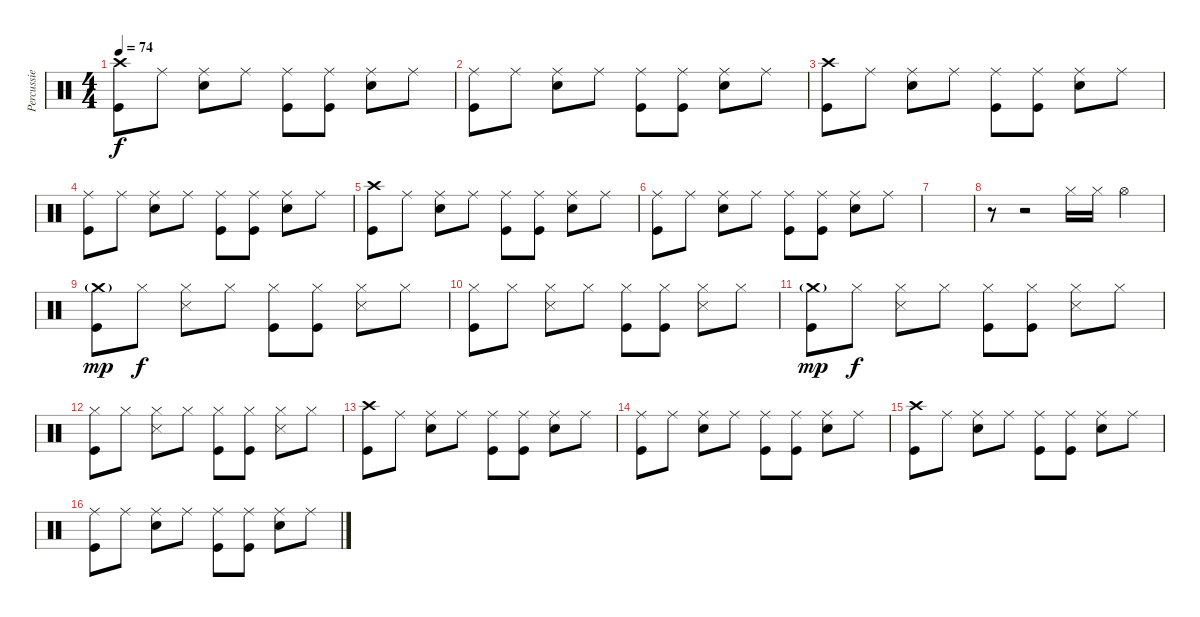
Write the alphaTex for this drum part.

\track ("Percussie" "Percussie") {instrument percussion}
\staff {score}
\articulation defaults
\ts (4 4)
\tempo 74
\clef neutral
\ks c
("Crash high (hit)" "Kick (hit)").8{dy f} "Ride (middle)".8 ("Ride (middle)" "Snare (hit) 2").8 "Ride (middle)".8 ("Ride (middle)" "Kick (hit)").8 ("Ride (middle)" "Kick (hit)").8 ("Ride (middle)" "Snare (hit) 2").8 "Ride (middle)".8 |
("Ride (middle)" "Kick (hit)").8 "Ride (middle)".8 ("Ride (middle)" "Snare (hit) 2").8 "Ride (middle)".8 ("Ride (middle)" "Kick (hit)").8 ("Ride (middle)" "Kick (hit)").8 ("Ride (middle)" "Snare (hit) 2").8 "Ride (middle)".8 |
("Crash high (hit)" "Kick (hit)").8 "Ride (middle)".8 ("Ride (middle)" "Snare (hit) 2").8 "Ride (middle)".8 ("Ride (middle)" "Kick (hit)").8 ("Ride (middle)" "Kick (hit)").8 ("Ride (middle)" "Snare (hit) 2").8 "Ride (middle)".8 |
("Ride (middle)" "Kick (hit)").8 "Ride (middle)".8 ("Ride (middle)" "Snare (hit) 2").8 "Ride (middle)".8 ("Ride (middle)" "Kick (hit)").8 ("Ride (middle)" "Kick (hit)").8 ("Ride (middle)" "Snare (hit) 2").8 "Ride (middle)".8 |
("Crash high (hit)" "Kick (hit)").8 "Ride (middle)".8 ("Ride (middle)" "Snare (hit) 2").8 "Ride (middle)".8 ("Ride (middle)" "Kick (hit)").8 ("Ride (middle)" "Kick (hit)").8 ("Ride (middle)" "Snare (hit) 2").8 "Ride (middle)".8 |
("Ride (middle)" "Kick (hit)").8 "Ride (middle)".8 ("Ride (middle)" "Snare (hit) 2").8 "Ride (middle)".8 ("Ride (middle)" "Kick (hit)").8 ("Ride (middle)" "Kick (hit)").8 ("Ride (middle)" "Snare (hit) 2").8 "Ride (middle)".8 |
|
r.8 r.2 "Hi-Hat (closed)".16 "Hi-Hat (closed)".16 "Hi-Hat (open)".4 |
("Crash medium (hit)"{g} "Kick (hit)").8{dy mp} "Hi-Hat (closed)".8{dy f} ("Hi-Hat (closed)" "Snare (side stick) 3").8 "Hi-Hat (closed)".8 ("Hi-Hat (closed)" "Kick (hit)").8 ("Hi-Hat (closed)" "Kick (hit)").8 ("Hi-Hat (closed)" "Snare (side stick) 3").8 "Hi-Hat (closed)".8 |
("Hi-Hat (closed)" "Kick (hit)").8 "Hi-Hat (closed)".8 ("Hi-Hat (closed)" "Snare (side stick) 3").8 "Hi-Hat (closed)".8 ("Hi-Hat (closed)" "Kick (hit)").8 ("Hi-Hat (closed)" "Kick (hit)").8 ("Hi-Hat (closed)" "Snare (side stick) 3").8 "Hi-Hat (closed)".8 |
("Crash medium (hit)"{g} "Kick (hit)").8{dy mp} "Hi-Hat (closed)".8{dy f} ("Hi-Hat (closed)" "Snare (side stick) 3").8 "Hi-Hat (closed)".8 ("Hi-Hat (closed)" "Kick (hit)").8 ("Hi-Hat (closed)" "Kick (hit)").8 ("Hi-Hat (closed)" "Snare (side stick) 3").8 "Hi-Hat (closed)".8 |
("Hi-Hat (closed)" "Kick (hit)").8 "Hi-Hat (closed)".8 ("Hi-Hat (closed)" "Snare (side stick) 3").8 "Hi-Hat (closed)".8 ("Hi-Hat (closed)" "Kick (hit)").8 ("Hi-Hat (closed)" "Kick (hit)").8 ("Hi-Hat (closed)" "Snare (side stick) 3").8 "Hi-Hat (closed)".8 |
("Crash high (hit)" "Kick (hit)").8 "Ride (middle)".8 ("Ride (middle)" "Snare (hit) 2").8 "Ride (middle)".8 ("Ride (middle)" "Kick (hit)").8 ("Ride (middle)" "Kick (hit)").8 ("Ride (middle)" "Snare (hit) 2").8 "Ride (middle)".8 |
("Ride (middle)" "Kick (hit)").8 "Ride (middle)".8 ("Ride (middle)" "Snare (hit) 2").8 "Ride (middle)".8 ("Ride (middle)" "Kick (hit)").8 ("Ride (middle)" "Kick (hit)").8 ("Ride (middle)" "Snare (hit) 2").8 "Ride (middle)".8 |
("Crash high (hit)" "Kick (hit)").8 "Ride (middle)".8 ("Ride (middle)" "Snare (hit) 2").8 "Ride (middle)".8 ("Ride (middle)" "Kick (hit)").8 ("Ride (middle)" "Kick (hit)").8 ("Ride (middle)" "Snare (hit) 2").8 "Ride (middle)".8 |
("Ride (middle)" "Kick (hit)").8 "Ride (middle)".8 ("Ride (middle)" "Snare (hit) 2").8 "Ride (middle)".8 ("Ride (middle)" "Kick (hit)").8 ("Ride (middle)" "Kick (hit)").8 ("Ride (middle)" "Snare (hit) 2").8 "Ride (middle)".8
